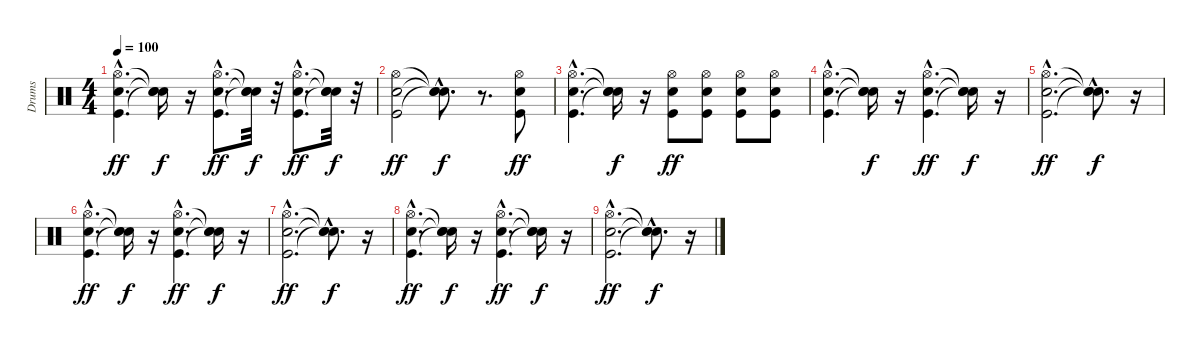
\track ("Drums" "Drums") {instrument percussion}
\staff {score}
\articulation defaults
\ts (4 4)
\tempo 100
\clef neutral
\ks c
("Kick (hit)"{hac} "Electric Snare (hit)"{hac} "Hi-Hat (open)"{hac}).4{d dy ff} ("Snare (hit)"{t} "Snare (hit)"{t} "Snare (hit)"{t}).16{dy f} r.16 ("Kick (hit)"{hac} "Electric Snare (hit)"{hac} "Hi-Hat (open)"{hac}).8{d dy ff} ("Snare (hit)"{t} "Snare (hit)"{t} "Snare (hit)"{t}).32{dy f} r.32 ("Kick (hit)"{hac} "Electric Snare (hit)"{hac} "Hi-Hat (open)"{hac}).8{d dy ff} ("Snare (hit)"{t} "Snare (hit)"{t} "Snare (hit)"{t}).32{dy f} r.32 |
("Kick (hit)" "Electric Snare (hit)" "Hi-Hat (open)").2{dy ff} ("Snare (hit)"{hac t} "Snare (hit)"{hac t} "Snare (hit)"{hac t}).8{d dy f} r.8{d} ("Kick (hit)" "Electric Snare (hit)" "Hi-Hat (open)").8{dy ff} |
("Kick (hit)"{hac} "Electric Snare (hit)"{hac} "Hi-Hat (open)"{hac}).4{d} ("Snare (hit)"{t} "Snare (hit)"{t} "Snare (hit)"{t}).16{dy f} r.16 ("Kick (hit)" "Electric Snare (hit)" "Hi-Hat (open)").8{dy ff} ("Kick (hit)" "Electric Snare (hit)" "Hi-Hat (open)").8 ("Kick (hit)" "Electric Snare (hit)" "Hi-Hat (open)").8 ("Kick (hit)" "Electric Snare (hit)" "Hi-Hat (open)").8 |
("Kick (hit)"{hac} "Electric Snare (hit)"{hac} "Hi-Hat (open)"{hac}).4{d} ("Snare (hit)"{t} "Snare (hit)"{t} "Snare (hit)"{t}).16{dy f} r.16 ("Kick (hit)"{hac} "Electric Snare (hit)"{hac} "Hi-Hat (open)"{hac}).4{d dy ff} ("Snare (hit)"{t} "Snare (hit)"{t} "Snare (hit)"{t}).16{dy f} r.16 |
("Kick (hit)"{hac} "Electric Snare (hit)"{hac} "Hi-Hat (open)"{hac}).2{d dy ff} ("Snare (hit)"{hac t} "Snare (hit)"{hac t} "Snare (hit)"{hac t}).8{d dy f} r.16 |
("Kick (hit)"{hac} "Electric Snare (hit)"{hac} "Hi-Hat (open)"{hac}).4{d dy ff} ("Snare (hit)"{t} "Snare (hit)"{t} "Snare (hit)"{t}).16{dy f} r.16 ("Kick (hit)"{hac} "Electric Snare (hit)"{hac} "Hi-Hat (open)"{hac}).4{d dy ff} ("Snare (hit)"{t} "Snare (hit)"{t} "Snare (hit)"{t}).16{dy f} r.16 |
("Kick (hit)"{hac} "Electric Snare (hit)"{hac} "Hi-Hat (open)"{hac}).2{d dy ff} ("Snare (hit)"{hac t} "Snare (hit)"{hac t} "Snare (hit)"{hac t}).8{d dy f} r.16 |
("Kick (hit)"{hac} "Electric Snare (hit)"{hac} "Hi-Hat (open)"{hac}).4{d dy ff} ("Snare (hit)"{t} "Snare (hit)"{t} "Snare (hit)"{t}).16{dy f} r.16 ("Kick (hit)"{hac} "Electric Snare (hit)"{hac} "Hi-Hat (open)"{hac}).4{d dy ff} ("Snare (hit)"{t} "Snare (hit)"{t} "Snare (hit)"{t}).16{dy f} r.16 |
("Kick (hit)"{hac} "Electric Snare (hit)"{hac} "Hi-Hat (open)"{hac}).2{d dy ff} ("Snare (hit)"{hac t} "Snare (hit)"{hac t} "Snare (hit)"{hac t}).8{d dy f} r.16
